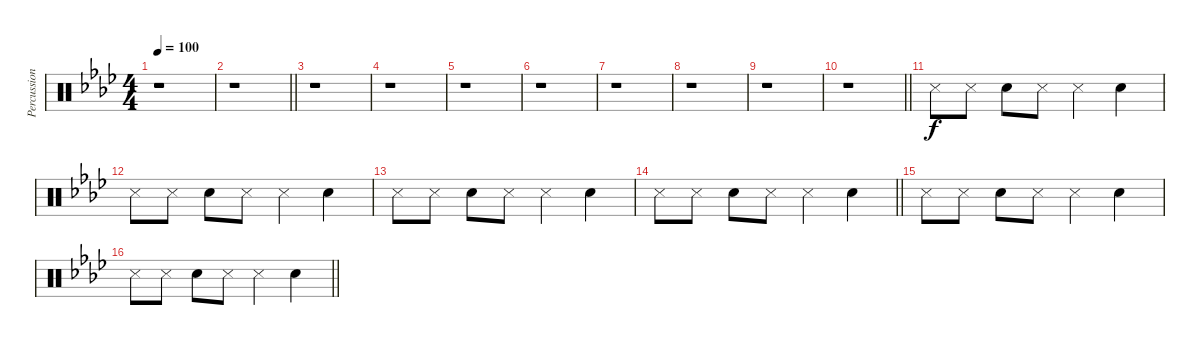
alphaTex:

\track ("Percussions" "Percussion") {instrument percussion}
\staff {score}
\articulation defaults
\ts (4 4)
\tempo 100
\clef neutral
\ks ab
r.1{dy f} |
\barLineRight lightlight
r.1 |
r.1 |
r.1 |
r.1 |
r.1 |
r.1 |
r.1 |
r.1 |
\barLineRight lightlight
r.1 |
"Snare (side stick) 3".8 "Snare (side stick) 3".8 "Hand Clap (hit)".8 "Snare (side stick) 3".8 "Snare (side stick) 3".4 "Hand Clap (hit)".4 |
"Snare (side stick) 3".8 "Snare (side stick) 3".8 "Hand Clap (hit)".8 "Snare (side stick) 3".8 "Snare (side stick) 3".4 "Hand Clap (hit)".4 |
"Snare (side stick) 3".8 "Snare (side stick) 3".8 "Hand Clap (hit)".8 "Snare (side stick) 3".8 "Snare (side stick) 3".4 "Hand Clap (hit)".4 |
\barLineRight lightlight "Snare (side stick) 3".8 "Snare (side stick) 3".8 "Hand Clap (hit)".8 "Snare (side stick) 3".8 "Snare (side stick) 3".4 "Hand Clap (hit)".4
|
"Snare (side stick) 3".8 "Snare (side stick) 3".8 "Hand Clap (hit)".8 "Snare (side stick) 3".8 "Snare (side stick) 3".4 "Hand Clap (hit)".4 |
\barLineRight lightlight "Snare (side stick) 3".8 "Snare (side stick) 3".8 "Hand Clap (hit)".8 "Snare (side stick) 3".8 "Snare (side stick) 3".4 "Hand Clap (hit)".4
